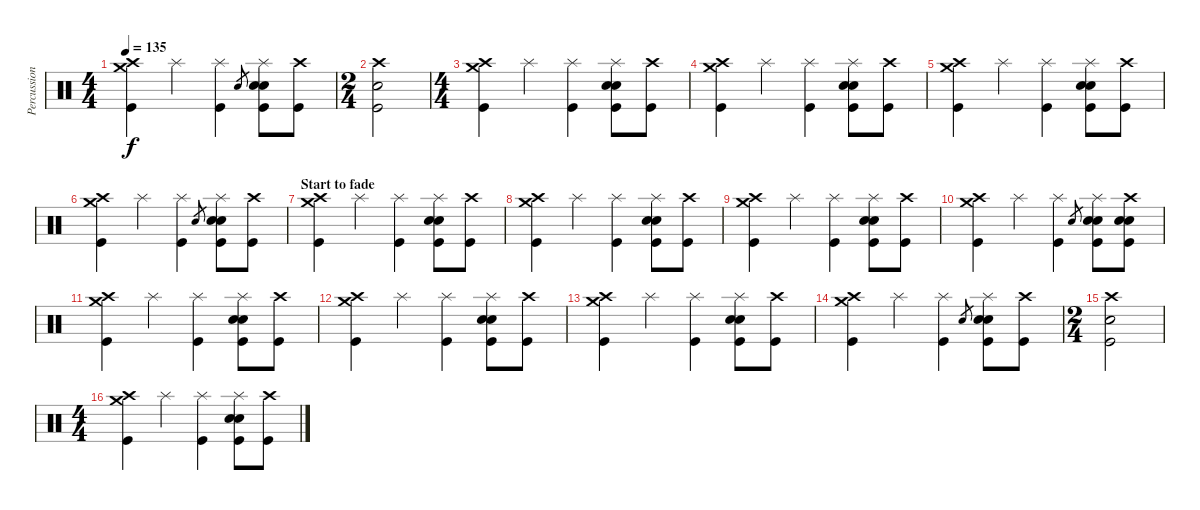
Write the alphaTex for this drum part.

\track ("Percussions" "Percussion") {instrument percussion}
\staff {score}
\articulation defaults
\ts (4 4)
\tempo 135
\clef neutral
\ks c
("Crash high (hit)" "Crash medium (hit)" "Kick (hit)").4{dy f} "Splash (hit)".4 ("Splash (hit)" "Kick (hit)").4 "Electric Snare (hit)".8{gr} ("Splash (hit)" "Electric Snare (hit)" "Snare (hit) 2" "Kick (hit)").8 ("Crash high (hit)" "Kick (hit)").8 |
\ts (2 4)
("Crash high (hit)" "Electric Snare (hit)" "Kick (hit)").2 |
\ts (4 4)
("Crash high (hit)" "Crash medium (hit)" "Kick (hit)").4 "Splash (hit)".4 ("Splash (hit)" "Kick (hit)").4 ("Splash (hit)" "Electric Snare (hit)" "Snare (hit) 2" "Kick (hit)").8 ("Crash high (hit)" "Kick (hit)").8 |
("Crash high (hit)" "Crash medium (hit)" "Kick (hit)").4 "Splash (hit)".4 ("Splash (hit)" "Kick (hit)").4 ("Splash (hit)" "Electric Snare (hit)" "Snare (hit) 2" "Kick (hit)").8 ("Crash high (hit)" "Kick (hit)").8 |
("Crash high (hit)" "Crash medium (hit)" "Kick (hit)").4 "Splash (hit)".4 ("Splash (hit)" "Kick (hit)").4 ("Splash (hit)" "Electric Snare (hit)" "Snare (hit) 2" "Kick (hit)").8 ("Crash high (hit)" "Kick (hit)").8 |
("Crash high (hit)" "Crash medium (hit)" "Kick (hit)").4 "Splash (hit)".4 ("Splash (hit)" "Kick (hit)").4 "Electric Snare (hit)".8{gr} ("Splash (hit)" "Electric Snare (hit)" "Snare (hit) 2" "Kick (hit)").8 ("Crash high (hit)" "Kick (hit)").8 |
\section ("" "Start to fade")
("Crash high (hit)" "Crash medium (hit)" "Kick (hit)").4{volume 11} "Splash (hit)".4 ("Splash (hit)" "Kick (hit)").4 ("Splash (hit)" "Electric Snare (hit)" "Snare (hit) 2" "Kick (hit)").8 ("Crash high (hit)" "Kick (hit)").8 |
("Crash high (hit)" "Crash medium (hit)" "Kick (hit)").4 "Splash (hit)".4 ("Splash (hit)" "Kick (hit)").4 ("Splash (hit)" "Electric Snare (hit)" "Snare (hit) 2" "Kick (hit)").8 ("Crash high (hit)" "Kick (hit)").8 |
("Crash high (hit)" "Crash medium (hit)" "Kick (hit)").4 "Splash (hit)".4 ("Splash (hit)" "Kick (hit)").4 ("Splash (hit)" "Electric Snare (hit)" "Snare (hit) 2" "Kick (hit)").8 ("Crash high (hit)" "Kick (hit)").8 |
("Crash high (hit)" "Crash medium (hit)" "Kick (hit)").4 "Splash (hit)".4 ("Splash (hit)" "Kick (hit)").4 "Electric Snare (hit)".8{gr} ("Splash (hit)" "Electric Snare (hit)" "Snare (hit) 2" "Kick (hit)").8 ("Crash high (hit)" "Electric Snare (hit)" "Snare (hit) 2" "Kick (hit)").8 |
("Crash high (hit)" "Crash medium (hit)" "Kick (hit)").4{volume 8} "Splash (hit)".4 ("Splash (hit)" "Kick (hit)").4 ("Splash (hit)" "Electric Snare (hit)" "Snare (hit) 2" "Kick (hit)").8 ("Crash high (hit)" "Kick (hit)").8 |
("Crash high (hit)" "Crash medium (hit)" "Kick (hit)").4 "Splash (hit)".4 ("Splash (hit)" "Kick (hit)").4 ("Splash (hit)" "Electric Snare (hit)" "Snare (hit) 2" "Kick (hit)").8 ("Crash high (hit)" "Kick (hit)").8 |
("Crash high (hit)" "Crash medium (hit)" "Kick (hit)").4 "Splash (hit)".4 ("Splash (hit)" "Kick (hit)").4 ("Splash (hit)" "Electric Snare (hit)" "Snare (hit) 2" "Kick (hit)").8 ("Crash high (hit)" "Kick (hit)").8 |
("Crash high (hit)" "Crash medium (hit)" "Kick (hit)").4 "Splash (hit)".4 ("Splash (hit)" "Kick (hit)").4 "Electric Snare (hit)".8{gr} ("Splash (hit)" "Electric Snare (hit)" "Snare (hit) 2" "Kick (hit)").8 ("Crash high (hit)" "Kick (hit)").8 |
\ts (2 4)
("Crash high (hit)" "Electric Snare (hit)" "Kick (hit)").2 |
\ts (4 4)
("Crash high (hit)" "Crash medium (hit)" "Kick (hit)").4{volume 7} "Splash (hit)".4 ("Splash (hit)" "Kick (hit)").4 ("Splash (hit)" "Electric Snare (hit)" "Snare (hit) 2" "Kick (hit)").8 ("Crash high (hit)" "Kick (hit)").8
